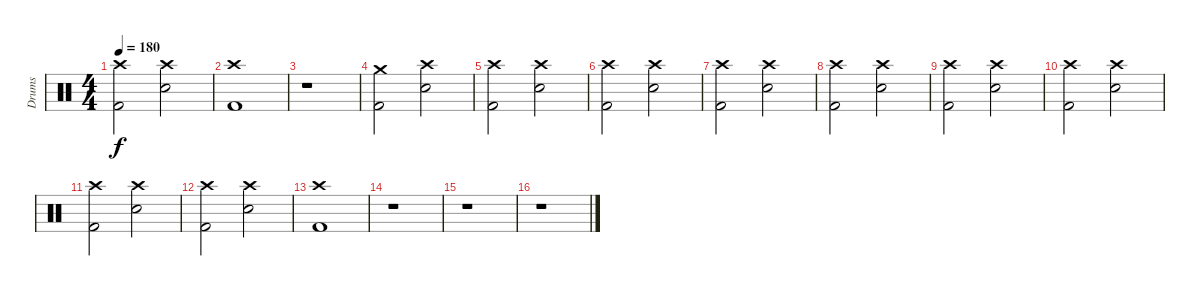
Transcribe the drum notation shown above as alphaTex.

\track ("Drums" "Drums") {instrument percussion}
\staff {score}
\articulation defaults
\ts (4 4)
\tempo 180
\clef neutral
\ks c
("Kick (hit) 2" "Crash high (hit)").2{dy f} ("Crash high (hit)" "Snare (hit) 2").2 |
("Crash high (hit)" "Kick (hit) 2").1 |
r.1 |
\section ("" "")
("Crash medium (hit)" "Kick (hit) 2").2 ("Crash high (hit)" "Snare (hit) 2").2 |
("Crash high (hit)" "Kick (hit) 2").2 ("Crash high (hit)" "Snare (hit) 2").2 |
("Crash high (hit)" "Kick (hit) 2").2 ("Crash high (hit)" "Snare (hit) 2").2 |
("Crash high (hit)" "Kick (hit) 2").2 ("Crash high (hit)" "Snare (hit) 2").2 |
("Crash high (hit)" "Kick (hit) 2").2 ("Crash high (hit)" "Snare (hit) 2").2 |
("Crash high (hit)" "Kick (hit) 2").2 ("Crash high (hit)" "Snare (hit) 2").2 |
("Crash high (hit)" "Kick (hit) 2").2 ("Crash high (hit)" "Snare (hit) 2").2 |
("Kick (hit) 2" "Crash high (hit)").2 ("Crash high (hit)" "Snare (hit) 2").2 |
("Kick (hit) 2" "Crash high (hit)").2 ("Crash high (hit)" "Snare (hit) 2").2 |
("Crash high (hit)" "Kick (hit) 2").1 |
r.1 |
r.1 |
r.1
